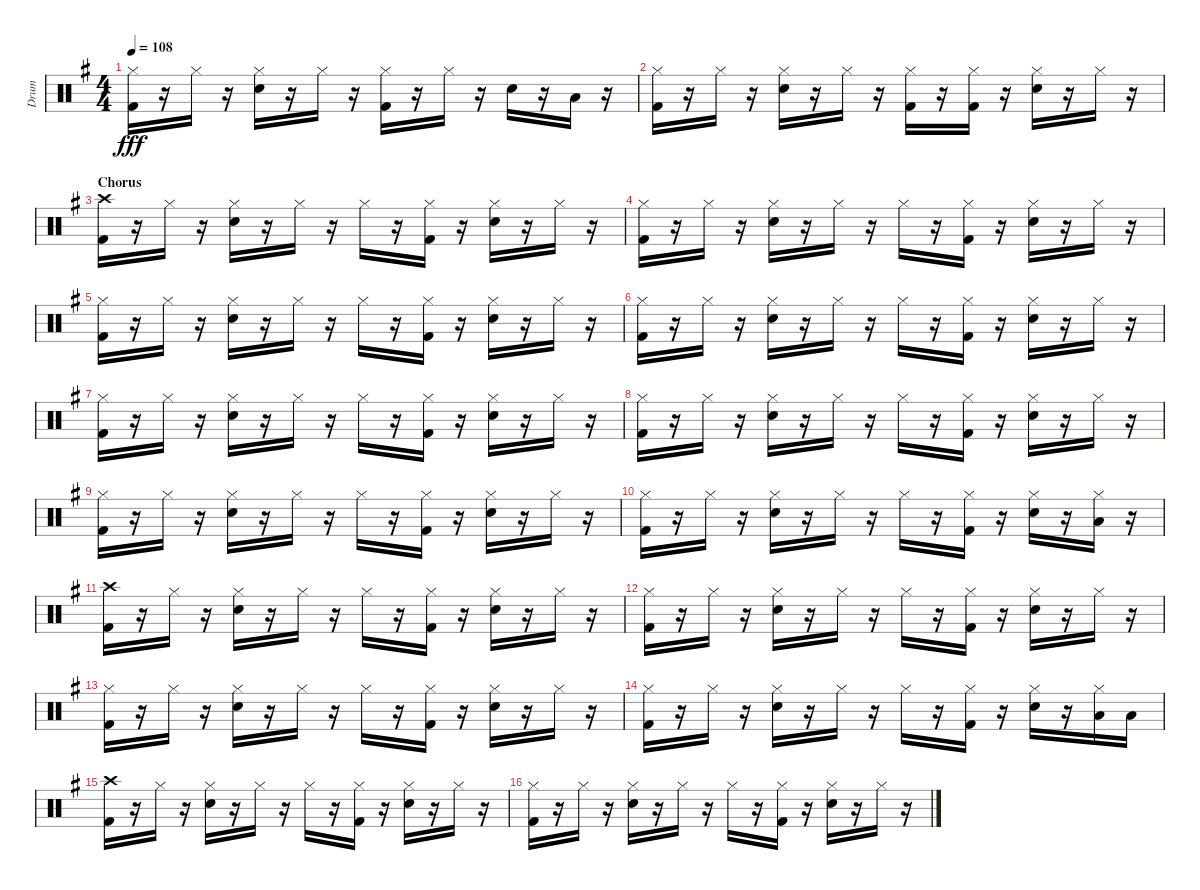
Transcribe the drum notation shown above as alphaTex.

\track ("Drum" "Drum") {instrument percussion}
\staff {score}
\articulation defaults
\ts (4 4)
\tempo 108
\clef neutral
\ks g
("Hi-Hat (closed)" "Kick (hit) 2").16{dy fff} r.16 "Hi-Hat (closed)".16 r.16 ("Hi-Hat (closed)" "Electric Snare (hit)").16 r.16 "Hi-Hat (closed)".16 r.16 ("Hi-Hat (closed)" "Kick (hit) 2").16 r.16 "Hi-Hat (closed)".16 r.16 "Electric Snare (hit)".16 r.16 "Low Tom (hit)".16 r.16 |
("Hi-Hat (closed)" "Kick (hit) 2").16 r.16 "Hi-Hat (closed)".16 r.16 ("Hi-Hat (closed)" "Electric Snare (hit)").16 r.16 "Hi-Hat (closed)".16 r.16 ("Hi-Hat (closed)" "Kick (hit) 2").16 r.16 ("Hi-Hat (closed)" "Kick (hit) 2").16 r.16 ("Hi-Hat (closed)" "Electric Snare (hit)").16 r.16 "Hi-Hat (closed)".16 r.16 |
\section ("" "Chorus")
("Crash high (hit)" "Kick (hit) 2").16 r.16 "Hi-Hat (closed)".16 r.16 ("Hi-Hat (closed)" "Electric Snare (hit)").16 r.16 "Hi-Hat (closed)".16 r.16 "Hi-Hat (closed)".16 r.16 ("Hi-Hat (closed)" "Kick (hit) 2").16 r.16 ("Hi-Hat (closed)" "Electric Snare (hit)").16 r.16 "Hi-Hat (closed)".16 r.16 |
("Hi-Hat (closed)" "Kick (hit) 2").16 r.16 "Hi-Hat (closed)".16 r.16 ("Hi-Hat (closed)" "Electric Snare (hit)").16 r.16 "Hi-Hat (closed)".16 r.16 "Hi-Hat (closed)".16 r.16 ("Hi-Hat (closed)" "Kick (hit) 2").16 r.16 ("Hi-Hat (closed)" "Electric Snare (hit)").16 r.16 "Hi-Hat (closed)".16 r.16 |
("Hi-Hat (closed)" "Kick (hit) 2").16 r.16 "Hi-Hat (closed)".16 r.16 ("Hi-Hat (closed)" "Electric Snare (hit)").16 r.16 "Hi-Hat (closed)".16 r.16 "Hi-Hat (closed)".16 r.16 ("Hi-Hat (closed)" "Kick (hit) 2").16 r.16 ("Hi-Hat (closed)" "Electric Snare (hit)").16 r.16 "Hi-Hat (closed)".16 r.16 |
("Hi-Hat (closed)" "Kick (hit) 2").16 r.16 "Hi-Hat (closed)".16 r.16 ("Hi-Hat (closed)" "Electric Snare (hit)").16 r.16 "Hi-Hat (closed)".16 r.16 "Hi-Hat (closed)".16 r.16 ("Hi-Hat (closed)" "Kick (hit) 2").16 r.16 ("Hi-Hat (closed)" "Electric Snare (hit)").16 r.16 "Hi-Hat (closed)".16 r.16 |
("Hi-Hat (closed)" "Kick (hit) 2").16 r.16 "Hi-Hat (closed)".16 r.16 ("Hi-Hat (closed)" "Electric Snare (hit)").16 r.16 "Hi-Hat (closed)".16 r.16 "Hi-Hat (closed)".16 r.16 ("Hi-Hat (closed)" "Kick (hit) 2").16 r.16 ("Hi-Hat (closed)" "Electric Snare (hit)").16 r.16 "Hi-Hat (closed)".16 r.16 |
("Hi-Hat (closed)" "Kick (hit) 2").16 r.16 "Hi-Hat (closed)".16 r.16 ("Hi-Hat (closed)" "Electric Snare (hit)").16 r.16 "Hi-Hat (closed)".16 r.16 "Hi-Hat (closed)".16 r.16 ("Hi-Hat (closed)" "Kick (hit) 2").16 r.16 ("Hi-Hat (closed)" "Electric Snare (hit)").16 r.16 "Hi-Hat (closed)".16 r.16 |
("Hi-Hat (closed)" "Kick (hit) 2").16 r.16 "Hi-Hat (closed)".16 r.16 ("Hi-Hat (closed)" "Electric Snare (hit)").16 r.16 "Hi-Hat (closed)".16 r.16 "Hi-Hat (closed)".16 r.16 ("Hi-Hat (closed)" "Kick (hit) 2").16 r.16 ("Hi-Hat (closed)" "Electric Snare (hit)").16 r.16 "Hi-Hat (closed)".16 r.16 |
("Hi-Hat (closed)" "Kick (hit) 2").16 r.16 "Hi-Hat (closed)".16 r.16 ("Hi-Hat (closed)" "Electric Snare (hit)").16 r.16 "Hi-Hat (closed)".16 r.16 "Hi-Hat (closed)".16 r.16 ("Hi-Hat (closed)" "Kick (hit) 2").16 r.16 ("Hi-Hat (closed)" "Electric Snare (hit)").16 r.16 ("Hi-Hat (closed)" "Low Tom (hit)").16 r.16 |
("Crash high (hit)" "Kick (hit) 2").16 r.16 "Hi-Hat (closed)".16 r.16 ("Hi-Hat (closed)" "Electric Snare (hit)").16 r.16 "Hi-Hat (closed)".16 r.16 "Hi-Hat (closed)".16 r.16 ("Hi-Hat (closed)" "Kick (hit) 2").16 r.16 ("Hi-Hat (closed)" "Electric Snare (hit)").16 r.16 "Hi-Hat (closed)".16 r.16 |
("Hi-Hat (closed)" "Kick (hit) 2").16 r.16 "Hi-Hat (closed)".16 r.16 ("Hi-Hat (closed)" "Electric Snare (hit)").16 r.16 "Hi-Hat (closed)".16 r.16 "Hi-Hat (closed)".16 r.16 ("Hi-Hat (closed)" "Kick (hit) 2").16 r.16 ("Hi-Hat (closed)" "Electric Snare (hit)").16 r.16 "Hi-Hat (closed)".16 r.16 |
("Hi-Hat (closed)" "Kick (hit) 2").16 r.16 "Hi-Hat (closed)".16 r.16 ("Hi-Hat (closed)" "Electric Snare (hit)").16 r.16 "Hi-Hat (closed)".16 r.16 "Hi-Hat (closed)".16 r.16 ("Hi-Hat (closed)" "Kick (hit) 2").16 r.16 ("Hi-Hat (closed)" "Electric Snare (hit)").16 r.16 "Hi-Hat (closed)".16 r.16 |
("Hi-Hat (closed)" "Kick (hit) 2").16 r.16 "Hi-Hat (closed)".16 r.16 ("Hi-Hat (closed)" "Electric Snare (hit)").16 r.16 "Hi-Hat (closed)".16 r.16 "Hi-Hat (closed)".16 r.16 ("Hi-Hat (closed)" "Kick (hit) 2").16 r.16 ("Hi-Hat (closed)" "Electric Snare (hit)").16 r.16 ("Hi-Hat (closed)" "Low Tom (hit)").16 "Low Tom (hit)".16 |
("Crash high (hit)" "Kick (hit) 2").16 r.16 "Hi-Hat (closed)".16 r.16 ("Hi-Hat (closed)" "Electric Snare (hit)").16 r.16 "Hi-Hat (closed)".16 r.16 "Hi-Hat (closed)".16 r.16 ("Hi-Hat (closed)" "Kick (hit) 2").16 r.16 ("Hi-Hat (closed)" "Electric Snare (hit)").16 r.16 "Hi-Hat (closed)".16 r.16 |
("Hi-Hat (closed)" "Kick (hit) 2").16 r.16 "Hi-Hat (closed)".16 r.16 ("Hi-Hat (closed)" "Electric Snare (hit)").16 r.16 "Hi-Hat (closed)".16 r.16 "Hi-Hat (closed)".16 r.16 ("Hi-Hat (closed)" "Kick (hit) 2").16 r.16 ("Hi-Hat (closed)" "Electric Snare (hit)").16 r.16 "Hi-Hat (closed)".16 r.16
